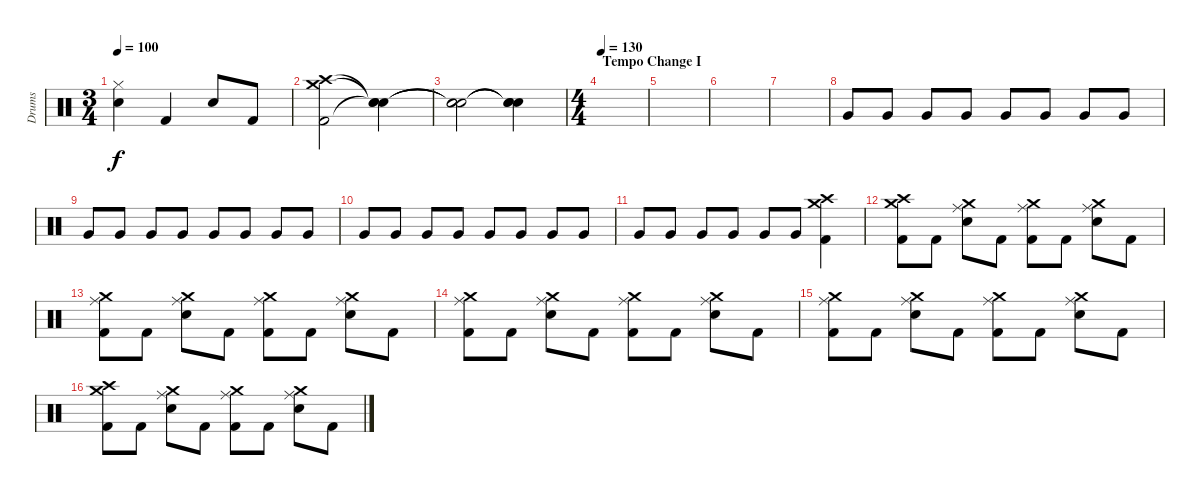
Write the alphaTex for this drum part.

\track ("Drums" "Drums") {instrument percussion}
\staff {score}
\articulation defaults
\ts (3 4)
\tempo 100
\clef neutral
\ks c
("Hi-Hat (closed)" "Electric Snare (hit)").4{dy f} "Kick (hit) 2".4 "Electric Snare (hit)".8 "Kick (hit) 2".8 |
("Crash medium (hit)" "Crash high (hit)" "Kick (hit) 2").2 ("Snare (hit)"{t} "Snare (hit)"{t} "Snare (hit)"{t}).4 |
("Snare (hit)"{t} "Snare (hit)"{t} "Snare (hit)"{t}).2 ("Snare (hit)"{t} "Snare (hit)"{t} "Snare (hit)"{t}).4 |
\ts (4 4)
\section ("" "Tempo Change I")
\tempo 130
|
|
|
|
"Very Low Tom (hit)".8{volume 10} "Very Low Tom (hit)".8 "Very Low Tom (hit)".8 "Very Low Tom (hit)".8 "Very Low Tom (hit)".8{volume 13} "Very Low Tom (hit)".8 "Very Low Tom (hit)".8 "Very Low Tom (hit)".8 |
"Very Low Tom (hit)".8 "Very Low Tom (hit)".8 "Very Low Tom (hit)".8 "Very Low Tom (hit)".8 "Very Low Tom (hit)".8 "Very Low Tom (hit)".8 "Very Low Tom (hit)".8 "Very Low Tom (hit)".8 |
"Very Low Tom (hit)".8 "Very Low Tom (hit)".8 "Very Low Tom (hit)".8 "Very Low Tom (hit)".8 "Very Low Tom (hit)".8 "Very Low Tom (hit)".8 "Very Low Tom (hit)".8 "Very Low Tom (hit)".8 |
"Very Low Tom (hit)".8 "Very Low Tom (hit)".8 "Very Low Tom (hit)".8 "Very Low Tom (hit)".8 "Very Low Tom (hit)".8 "Very Low Tom (hit)".8 ("Crash high (hit)" "Crash medium (hit)" "Kick (hit) 2").4 |
("Crash high (hit)" "Crash medium (hit)" "Kick (hit) 2").8{volume 13} "Kick (hit) 2".8 ("Ride (middle)" "Electric Snare (hit)" "Crash medium (hit)").8 "Kick (hit) 2".8 ("Ride (middle)" "Crash medium (hit)" "Kick (hit) 2").8 "Kick (hit) 2".8 ("Ride (middle)" "Electric Snare (hit)" "Crash medium (hit)").8 "Kick (hit) 2".8 |
("Ride (middle)" "Crash medium (hit)" "Kick (hit) 2").8 "Kick (hit) 2".8 ("Ride (middle)" "Electric Snare (hit)" "Crash medium (hit)").8 "Kick (hit) 2".8 ("Ride (middle)" "Crash medium (hit)" "Kick (hit) 2").8 "Kick (hit) 2".8 ("Ride (middle)" "Electric Snare (hit)" "Crash medium (hit)").8 "Kick (hit) 2".8 |
("Ride (middle)" "Crash medium (hit)" "Kick (hit) 2").8 "Kick (hit) 2".8 ("Ride (middle)" "Electric Snare (hit)" "Crash medium (hit)").8 "Kick (hit) 2".8 ("Ride (middle)" "Crash medium (hit)" "Kick (hit) 2").8 "Kick (hit) 2".8 ("Ride (middle)" "Electric Snare (hit)" "Crash medium (hit)").8 "Kick (hit) 2".8 |
("Ride (middle)" "Crash medium (hit)" "Kick (hit) 2").8 "Kick (hit) 2".8 ("Ride (middle)" "Electric Snare (hit)" "Crash medium (hit)").8 "Kick (hit) 2".8 ("Ride (middle)" "Crash medium (hit)" "Kick (hit) 2").8 "Kick (hit) 2".8 ("Ride (middle)" "Electric Snare (hit)" "Crash medium (hit)").8 "Kick (hit) 2".8 |
("Crash high (hit)" "Crash medium (hit)" "Kick (hit) 2").8 "Kick (hit) 2".8 ("Ride (middle)" "Electric Snare (hit)" "Crash medium (hit)").8 "Kick (hit) 2".8 ("Ride (middle)" "Crash medium (hit)" "Kick (hit) 2").8 "Kick (hit) 2".8 ("Ride (middle)" "Electric Snare (hit)" "Crash medium (hit)").8 "Kick (hit) 2".8
